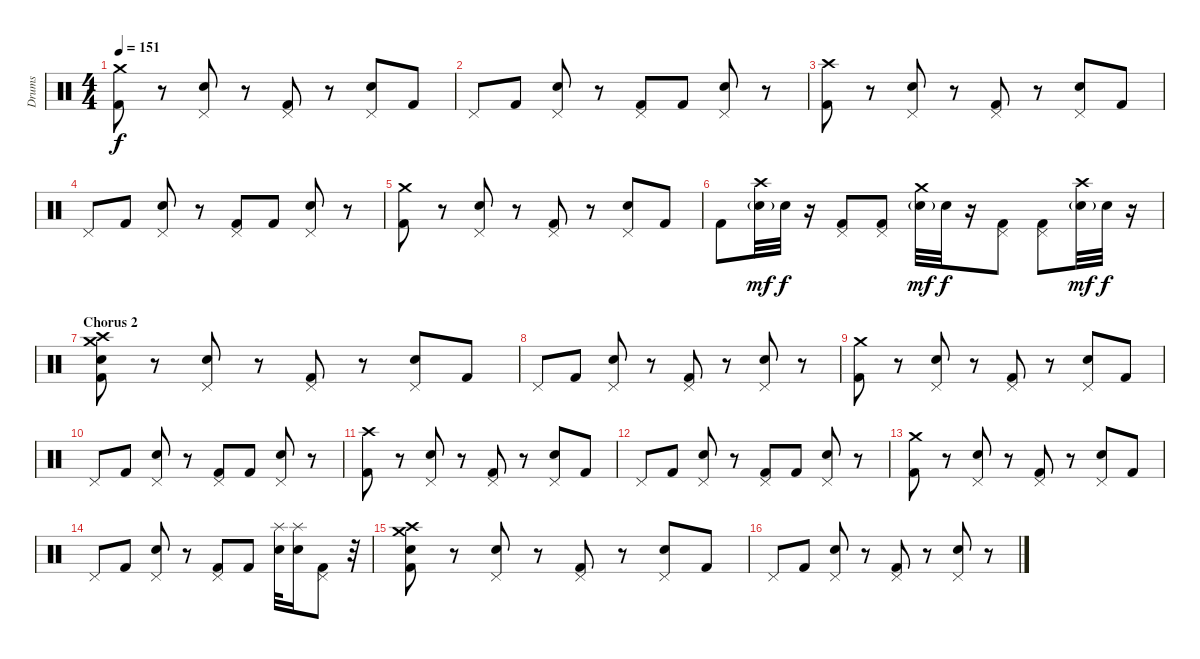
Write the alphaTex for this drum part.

\track ("Drums" "Drums") {instrument percussion}
\staff {score}
\articulation defaults
\ts (4 4)
\tempo 151
\clef neutral
\ks c
("Kick (hit) 2" "Crash medium (hit)").8{dy f} r.8 ("Pedal Hi-Hat (hit)" "Electric Snare (hit)").8 r.8 ("Pedal Hi-Hat (hit)" "Kick (hit) 2").8 r.8 ("Pedal Hi-Hat (hit)" "Electric Snare (hit)").8 "Kick (hit) 2".8 |
"Pedal Hi-Hat (hit)".8 "Kick (hit) 2".8 ("Pedal Hi-Hat (hit)" "Electric Snare (hit)").8 r.8 ("Pedal Hi-Hat (hit)" "Kick (hit) 2").8 "Kick (hit) 2".8 ("Pedal Hi-Hat (hit)" "Electric Snare (hit)").8 r.8 |
("Kick (hit) 2" "Crash high (hit)").8 r.8 ("Pedal Hi-Hat (hit)" "Electric Snare (hit)").8 r.8 ("Pedal Hi-Hat (hit)" "Kick (hit) 2").8 r.8 ("Pedal Hi-Hat (hit)" "Electric Snare (hit)").8 "Kick (hit) 2".8 |
"Pedal Hi-Hat (hit)".8 "Kick (hit) 2".8 ("Pedal Hi-Hat (hit)" "Electric Snare (hit)").8 r.8 ("Pedal Hi-Hat (hit)" "Kick (hit) 2").8 "Kick (hit) 2".8 ("Pedal Hi-Hat (hit)" "Electric Snare (hit)").8 r.8 |
("Kick (hit) 2" "Crash medium (hit)").8 r.8 ("Pedal Hi-Hat (hit)" "Electric Snare (hit)").8 r.8 ("Pedal Hi-Hat (hit)" "Kick (hit) 2").8 r.8 ("Pedal Hi-Hat (hit)" "Electric Snare (hit)").8 "Kick (hit) 2".8 |
"Kick (hit) 2".8{volume 16} ("Snare (hit) 2"{g} "Crash high (hit)").32{dy mf} "Snare (hit) 2".32{dy f} r.16 ("Kick (hit) 2" "Pedal Hi-Hat (hit)").8 ("Kick (hit) 2" "Pedal Hi-Hat (hit)").8 ("Snare (hit) 2"{g} "Crash medium (hit)").32{dy mf} "Snare (hit) 2".32{dy f} r.16 ("Kick (hit) 2" "Pedal Hi-Hat (hit)").8 ("Kick (hit) 2" "Pedal Hi-Hat (hit)").8 ("Snare (hit) 2"{g} "Crash high (hit)").32{dy mf} "Snare (hit) 2".32{dy f} r.16 |
\section ("" "Chorus 2")
("Kick (hit) 2" "Crash medium (hit)" "Electric Snare (hit)" "Crash high (hit)").8 r.8 ("Pedal Hi-Hat (hit)" "Electric Snare (hit)").8 r.8 ("Pedal Hi-Hat (hit)" "Kick (hit) 2").8 r.8 ("Pedal Hi-Hat (hit)" "Electric Snare (hit)").8 "Kick (hit) 2".8 |
"Pedal Hi-Hat (hit)".8 "Kick (hit) 2".8 ("Pedal Hi-Hat (hit)" "Electric Snare (hit)").8 r.8 ("Pedal Hi-Hat (hit)" "Kick (hit) 2").8 r.8 ("Pedal Hi-Hat (hit)" "Electric Snare (hit)").8 r.8 |
("Kick (hit) 2" "Crash medium (hit)").8 r.8 ("Pedal Hi-Hat (hit)" "Electric Snare (hit)").8 r.8 ("Pedal Hi-Hat (hit)" "Kick (hit) 2").8 r.8 ("Pedal Hi-Hat (hit)" "Electric Snare (hit)").8 "Kick (hit) 2".8 |
"Pedal Hi-Hat (hit)".8 "Kick (hit) 2".8 ("Pedal Hi-Hat (hit)" "Electric Snare (hit)").8 r.8 ("Pedal Hi-Hat (hit)" "Kick (hit) 2").8 "Kick (hit) 2".8 ("Pedal Hi-Hat (hit)" "Electric Snare (hit)").8 r.8 |
("Kick (hit) 2" "Crash high (hit)").8 r.8 ("Pedal Hi-Hat (hit)" "Electric Snare (hit)").8 r.8 ("Pedal Hi-Hat (hit)" "Kick (hit) 2").8 r.8 ("Pedal Hi-Hat (hit)" "Electric Snare (hit)").8 "Kick (hit) 2".8 |
"Pedal Hi-Hat (hit)".8 "Kick (hit) 2".8 ("Pedal Hi-Hat (hit)" "Electric Snare (hit)").8 r.8 ("Pedal Hi-Hat (hit)" "Kick (hit) 2").8 "Kick (hit) 2".8 ("Pedal Hi-Hat (hit)" "Electric Snare (hit)").8 r.8 |
("Kick (hit) 2" "Crash medium (hit)").8 r.8 ("Pedal Hi-Hat (hit)" "Electric Snare (hit)").8 r.8 ("Pedal Hi-Hat (hit)" "Kick (hit) 2").8 r.8 ("Pedal Hi-Hat (hit)" "Electric Snare (hit)").8 "Kick (hit) 2".8 |
"Pedal Hi-Hat (hit)".8 "Kick (hit) 2".8 ("Pedal Hi-Hat (hit)" "Electric Snare (hit)").8 r.8 ("Pedal Hi-Hat (hit)" "Kick (hit) 2").8 "Kick (hit) 2".8 ("Splash (hit)" "Electric Snare (hit)").32 ("Splash (hit)" "Electric Snare (hit)").16 ("Pedal Hi-Hat (hit)" "Kick (hit) 2").8 r.32 |
("Kick (hit) 2" "Crash medium (hit)" "Electric Snare (hit)" "Crash high (hit)").8 r.8 ("Pedal Hi-Hat (hit)" "Electric Snare (hit)").8 r.8 ("Pedal Hi-Hat (hit)" "Kick (hit) 2").8 r.8 ("Pedal Hi-Hat (hit)" "Electric Snare (hit)").8 "Kick (hit) 2".8 |
"Pedal Hi-Hat (hit)".8 "Kick (hit) 2".8 ("Pedal Hi-Hat (hit)" "Electric Snare (hit)").8 r.8 ("Pedal Hi-Hat (hit)" "Kick (hit) 2").8 r.8 ("Pedal Hi-Hat (hit)" "Electric Snare (hit)").8 r.8
